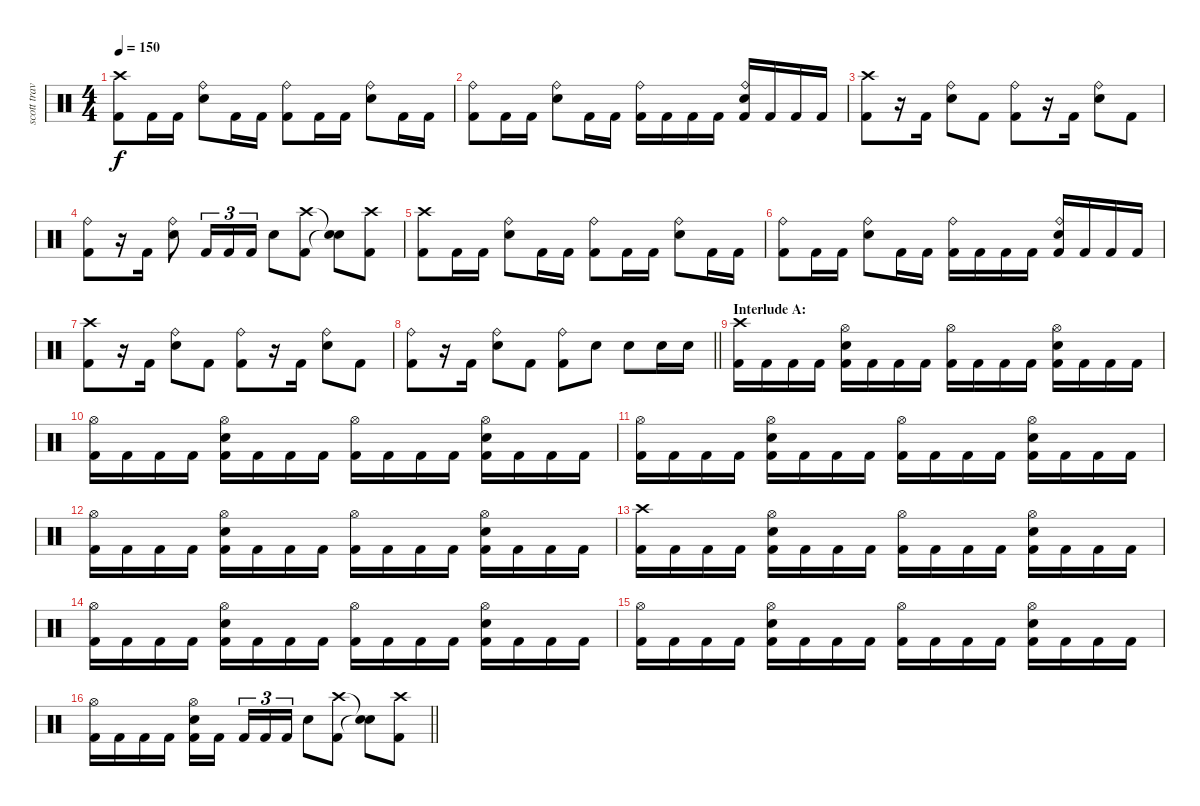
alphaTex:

\track ("scott travis" "scott trav") {instrument percussion}
\staff {score}
\articulation defaults
\ts (4 4)
\tempo 150
\clef neutral
\ks c
("Crash high (hit)" "Kick (hit) 2").8{dy f} "Kick (hit) 2".16 "Kick (hit) 2".16 ("Ride (bell)" "Snare (hit) 2").8 "Kick (hit) 2".16 "Kick (hit) 2".16 ("Ride (bell)" "Kick (hit) 2").8 "Kick (hit) 2".16 "Kick (hit) 2".16 ("Ride (bell)" "Snare (hit) 2").8 "Kick (hit) 2".16 "Kick (hit) 2".16 |
("Ride (bell)" "Kick (hit) 2").8 "Kick (hit) 2".16 "Kick (hit) 2".16 ("Ride (bell)" "Snare (hit) 2").8 "Kick (hit) 2".16 "Kick (hit) 2".16 ("Ride (bell)" "Kick (hit) 2").16 "Kick (hit) 2".16 "Kick (hit) 2".16 "Kick (hit) 2".16 ("Ride (bell)" "Snare (hit) 2" "Kick (hit) 2").16 "Kick (hit) 2".16 "Kick (hit) 2".16 "Kick (hit) 2".16 |
("Crash high (hit)" "Kick (hit) 2").8 r.16 "Kick (hit) 2".16 ("Ride (bell)" "Snare (hit) 2").8 "Kick (hit) 2".8 ("Ride (bell)" "Kick (hit) 2").8 r.16 "Kick (hit) 2".16 ("Ride (bell)" "Snare (hit) 2").8 "Kick (hit) 2".8 |
("Ride (bell)" "Kick (hit) 2").8 r.16 "Kick (hit) 2".16 ("Ride (bell)" "Snare (hit) 2").8 "Kick (hit) 2".16{tu (3 2)} "Kick (hit) 2".16{tu (3 2)} "Kick (hit) 2".16{tu (3 2)} "Snare (hit) 2".8 ("Crash high (hit)" "Kick (hit) 2").8 ("Snare (hit)"{t} "Snare (hit)"{t}).8 ("Crash high (hit)" "Kick (hit) 2").8 |
("Crash high (hit)" "Kick (hit) 2").8 "Kick (hit) 2".16 "Kick (hit) 2".16 ("Ride (bell)" "Snare (hit) 2").8 "Kick (hit) 2".16 "Kick (hit) 2".16 ("Ride (bell)" "Kick (hit) 2").8 "Kick (hit) 2".16 "Kick (hit) 2".16 ("Ride (bell)" "Snare (hit) 2").8 "Kick (hit) 2".16 "Kick (hit) 2".16 |
("Ride (bell)" "Kick (hit) 2").8 "Kick (hit) 2".16 "Kick (hit) 2".16 ("Ride (bell)" "Snare (hit) 2").8 "Kick (hit) 2".16 "Kick (hit) 2".16 ("Ride (bell)" "Kick (hit) 2").16 "Kick (hit) 2".16 "Kick (hit) 2".16 "Kick (hit) 2".16 ("Ride (bell)" "Snare (hit) 2" "Kick (hit) 2").16 "Kick (hit) 2".16 "Kick (hit) 2".16 "Kick (hit) 2".16 |
("Crash high (hit)" "Kick (hit) 2").8 r.16 "Kick (hit) 2".16 ("Ride (bell)" "Snare (hit) 2").8 "Kick (hit) 2".8 ("Ride (bell)" "Kick (hit) 2").8 r.16 "Kick (hit) 2".16 ("Ride (bell)" "Snare (hit) 2").8 "Kick (hit) 2".8 |
\barLineRight lightlight
("Ride (bell)" "Kick (hit) 2").8 r.16 "Kick (hit) 2".16 ("Ride (bell)" "Snare (hit) 2").8 "Kick (hit) 2".8 ("Ride (bell)" "Kick (hit) 2").8 "Snare (hit) 2".8 "Snare (hit) 2".8 "Snare (hit) 2".16 "Snare (hit) 2".16 |
\section ("" "Interlude A:")
("Crash high (hit)" "Kick (hit) 2").16 "Kick (hit) 2".16 "Kick (hit) 2".16 "Kick (hit) 2".16 ("Hi-Hat (open)" "Snare (hit) 2" "Kick (hit) 2").16 "Kick (hit) 2".16 "Kick (hit) 2".16 "Kick (hit) 2".16 ("Hi-Hat (open)" "Kick (hit) 2").16 "Kick (hit) 2".16 "Kick (hit) 2".16 "Kick (hit) 2".16 ("Hi-Hat (open)" "Snare (hit) 2" "Kick (hit) 2").16 "Kick (hit) 2".16 "Kick (hit) 2".16 "Kick (hit) 2".16 |
("Hi-Hat (open)" "Kick (hit) 2").16 "Kick (hit) 2".16 "Kick (hit) 2".16 "Kick (hit) 2".16 ("Hi-Hat (open)" "Snare (hit) 2" "Kick (hit) 2").16 "Kick (hit) 2".16 "Kick (hit) 2".16 "Kick (hit) 2".16 ("Hi-Hat (open)" "Kick (hit) 2").16 "Kick (hit) 2".16 "Kick (hit) 2".16 "Kick (hit) 2".16 ("Hi-Hat (open)" "Snare (hit) 2" "Kick (hit) 2").16 "Kick (hit) 2".16 "Kick (hit) 2".16 "Kick (hit) 2".16 |
("Hi-Hat (open)" "Kick (hit) 2").16 "Kick (hit) 2".16 "Kick (hit) 2".16 "Kick (hit) 2".16 ("Hi-Hat (open)" "Snare (hit) 2" "Kick (hit) 2").16 "Kick (hit) 2".16 "Kick (hit) 2".16 "Kick (hit) 2".16 ("Hi-Hat (open)" "Kick (hit) 2").16 "Kick (hit) 2".16 "Kick (hit) 2".16 "Kick (hit) 2".16 ("Hi-Hat (open)" "Snare (hit) 2" "Kick (hit) 2").16 "Kick (hit) 2".16 "Kick (hit) 2".16 "Kick (hit) 2".16 |
("Hi-Hat (open)" "Kick (hit) 2").16 "Kick (hit) 2".16 "Kick (hit) 2".16 "Kick (hit) 2".16 ("Hi-Hat (open)" "Snare (hit) 2" "Kick (hit) 2").16 "Kick (hit) 2".16 "Kick (hit) 2".16 "Kick (hit) 2".16 ("Hi-Hat (open)" "Kick (hit) 2").16 "Kick (hit) 2".16 "Kick (hit) 2".16 "Kick (hit) 2".16 ("Hi-Hat (open)" "Snare (hit) 2" "Kick (hit) 2").16 "Kick (hit) 2".16 "Kick (hit) 2".16 "Kick (hit) 2".16 |
("Crash high (hit)" "Kick (hit) 2").16 "Kick (hit) 2".16 "Kick (hit) 2".16 "Kick (hit) 2".16 ("Hi-Hat (open)" "Snare (hit) 2" "Kick (hit) 2").16 "Kick (hit) 2".16 "Kick (hit) 2".16 "Kick (hit) 2".16 ("Hi-Hat (open)" "Kick (hit) 2").16 "Kick (hit) 2".16 "Kick (hit) 2".16 "Kick (hit) 2".16 ("Hi-Hat (open)" "Snare (hit) 2" "Kick (hit) 2").16 "Kick (hit) 2".16 "Kick (hit) 2".16 "Kick (hit) 2".16 |
("Hi-Hat (open)" "Kick (hit) 2").16 "Kick (hit) 2".16 "Kick (hit) 2".16 "Kick (hit) 2".16 ("Hi-Hat (open)" "Snare (hit) 2" "Kick (hit) 2").16 "Kick (hit) 2".16 "Kick (hit) 2".16 "Kick (hit) 2".16 ("Hi-Hat (open)" "Kick (hit) 2").16 "Kick (hit) 2".16 "Kick (hit) 2".16 "Kick (hit) 2".16 ("Hi-Hat (open)" "Snare (hit) 2" "Kick (hit) 2").16 "Kick (hit) 2".16 "Kick (hit) 2".16 "Kick (hit) 2".16 |
("Hi-Hat (open)" "Kick (hit) 2").16 "Kick (hit) 2".16 "Kick (hit) 2".16 "Kick (hit) 2".16 ("Hi-Hat (open)" "Snare (hit) 2" "Kick (hit) 2").16 "Kick (hit) 2".16 "Kick (hit) 2".16 "Kick (hit) 2".16 ("Hi-Hat (open)" "Kick (hit) 2").16 "Kick (hit) 2".16 "Kick (hit) 2".16 "Kick (hit) 2".16 ("Hi-Hat (open)" "Snare (hit) 2" "Kick (hit) 2").16 "Kick (hit) 2".16 "Kick (hit) 2".16 "Kick (hit) 2".16 |
\barLineRight lightlight
("Hi-Hat (open)" "Kick (hit) 2").16 "Kick (hit) 2".16 "Kick (hit) 2".16 "Kick (hit) 2".16 ("Hi-Hat (open)" "Snare (hit) 2" "Kick (hit) 2").16 "Kick (hit) 2".16{beam splitsecondary} "Kick (hit) 2".16{tu (3 2)} "Kick (hit) 2".16{tu (3 2)} "Kick (hit) 2".16{tu (3 2)} "Snare (hit) 2".8 ("Crash high (hit)" "Kick (hit) 2").8 ("Snare (hit)"{t} "Snare (hit)"{t}).8 ("Crash high (hit)" "Kick (hit) 2").8
